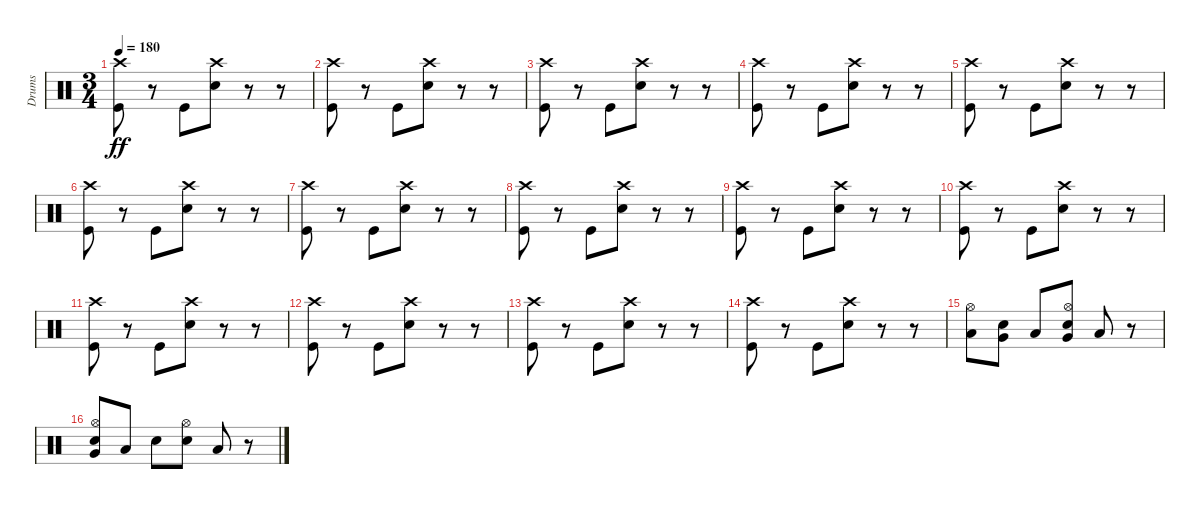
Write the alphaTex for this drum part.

\track ("Drums" "Drums") {instrument percussion}
\staff {score}
\articulation defaults
\ts (3 4)
\tempo 180
\clef neutral
\ks c
("Crash high (hit)" "Kick (hit)").8{dy ff} r.8 "Kick (hit)".8 ("Crash high (hit)" "Snare (hit) 2").8 r.8 r.8 |
("Crash high (hit)" "Kick (hit)").8 r.8 "Kick (hit)".8 ("Crash high (hit)" "Snare (hit) 2").8 r.8 r.8 |
("Crash high (hit)" "Kick (hit)").8 r.8 "Kick (hit)".8 ("Crash high (hit)" "Snare (hit) 2").8 r.8 r.8 |
("Crash high (hit)" "Kick (hit)").8 r.8 "Kick (hit)".8 ("Crash high (hit)" "Snare (hit) 2").8 r.8 r.8 |
("Crash high (hit)" "Kick (hit)").8 r.8 "Kick (hit)".8 ("Crash high (hit)" "Snare (hit) 2").8 r.8 r.8 |
("Crash high (hit)" "Kick (hit)").8 r.8 "Kick (hit)".8 ("Crash high (hit)" "Snare (hit) 2").8 r.8 r.8 |
("Crash high (hit)" "Kick (hit)").8 r.8 "Kick (hit)".8 ("Crash high (hit)" "Snare (hit) 2").8 r.8 r.8 |
("Crash high (hit)" "Kick (hit)").8 r.8 "Kick (hit)".8 ("Crash high (hit)" "Snare (hit) 2").8 r.8 r.8 |
("Crash high (hit)" "Kick (hit)").8 r.8 "Kick (hit)".8 ("Crash high (hit)" "Snare (hit) 2").8 r.8 r.8 |
("Crash high (hit)" "Kick (hit)").8 r.8 "Kick (hit)".8 ("Crash high (hit)" "Snare (hit) 2").8 r.8 r.8 |
("Crash high (hit)" "Kick (hit)").8 r.8 "Kick (hit)".8 ("Crash high (hit)" "Snare (hit) 2").8 r.8 r.8 |
("Crash high (hit)" "Kick (hit)").8 r.8 "Kick (hit)".8 ("Crash high (hit)" "Snare (hit) 2").8 r.8 r.8 |
("Crash high (hit)" "Kick (hit)").8 r.8 "Kick (hit)".8 ("Crash high (hit)" "Snare (hit) 2").8 r.8 r.8 |
("Crash high (hit)" "Kick (hit)").8 r.8 "Kick (hit)".8 ("Crash high (hit)" "Snare (hit) 2").8 r.8 r.8 |
("Hi-Hat (open)" "Low Floor Tom (hit)").8 ("Snare (hit) 2" "Very Low Tom (hit)").8 "Low Floor Tom (hit)".8 ("Hi-Hat (open)" "Snare (hit) 2" "Very Low Tom (hit)").8 "Low Tom (hit)".8 r.8 |
("Hi-Hat (open)" "Snare (hit) 2" "Very Low Tom (hit)").8 "Low Tom (hit)".8 "Snare (hit) 2".8 ("Hi-Hat (open)" "Snare (hit) 2").8 "Low Floor Tom (hit)".8 r.8
